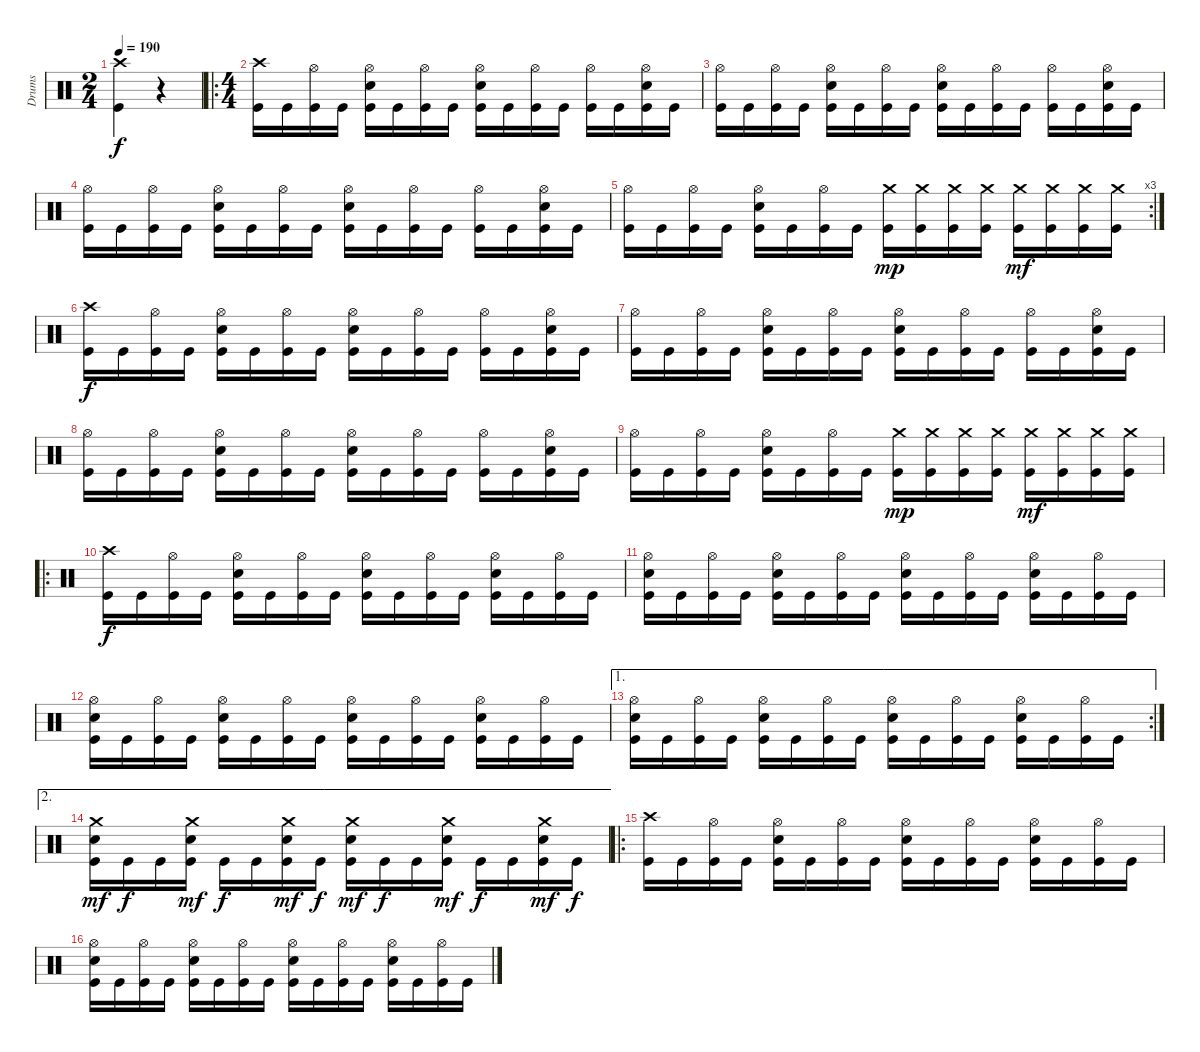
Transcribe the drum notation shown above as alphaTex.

\track ("Drums" "Drums") {instrument percussion}
\staff {score}
\articulation defaults
\ts (2 4)
\tempo 190
\clef neutral
\ks c
("Crash high (hit)" "Kick (hit)").4{dy f} r.4{volume 6} |
\ro
\ts (4 4)
("Crash high (hit)" "Kick (hit)").16{volume 16} "Kick (hit)".16 ("Hi-Hat (open)" "Kick (hit)").16 "Kick (hit)".16 ("Hi-Hat (open)" "Electric Snare (hit)" "Kick (hit)").16 "Kick (hit)".16 ("Hi-Hat (open)" "Kick (hit)").16 "Kick (hit)".16 ("Hi-Hat (open)" "Electric Snare (hit)" "Kick (hit)").16 "Kick (hit)".16 ("Hi-Hat (open)" "Kick (hit)").16 "Kick (hit)".16 ("Hi-Hat (open)" "Kick (hit)").16 "Kick (hit)".16 ("Hi-Hat (open)" "Electric Snare (hit)" "Kick (hit)").16 "Kick (hit)".16 |
("Hi-Hat (open)" "Kick (hit)").16 "Kick (hit)".16 ("Hi-Hat (open)" "Kick (hit)").16 "Kick (hit)".16 ("Hi-Hat (open)" "Electric Snare (hit)" "Kick (hit)").16 "Kick (hit)".16 ("Hi-Hat (open)" "Kick (hit)").16 "Kick (hit)".16 ("Hi-Hat (open)" "Electric Snare (hit)" "Kick (hit)").16 "Kick (hit)".16 ("Hi-Hat (open)" "Kick (hit)").16 "Kick (hit)".16 ("Hi-Hat (open)" "Kick (hit)").16 "Kick (hit)".16 ("Hi-Hat (open)" "Electric Snare (hit)" "Kick (hit)").16 "Kick (hit)".16 |
("Hi-Hat (open)" "Kick (hit)").16 "Kick (hit)".16 ("Hi-Hat (open)" "Kick (hit)").16 "Kick (hit)".16 ("Hi-Hat (open)" "Electric Snare (hit)" "Kick (hit)").16 "Kick (hit)".16 ("Hi-Hat (open)" "Kick (hit)").16 "Kick (hit)".16 ("Hi-Hat (open)" "Electric Snare (hit)" "Kick (hit)").16 "Kick (hit)".16 ("Hi-Hat (open)" "Kick (hit)").16 "Kick (hit)".16 ("Hi-Hat (open)" "Kick (hit)").16 "Kick (hit)".16 ("Hi-Hat (open)" "Electric Snare (hit)" "Kick (hit)").16 "Kick (hit)".16 |
\rc 3
("Hi-Hat (open)" "Kick (hit)").16 "Kick (hit)".16 ("Hi-Hat (open)" "Kick (hit)").16 "Kick (hit)".16 ("Hi-Hat (open)" "Electric Snare (hit)" "Kick (hit)").16 "Kick (hit)".16 ("Hi-Hat (open)" "Kick (hit)").16 "Kick (hit)".16 ("Crash medium (hit)" "Kick (hit)").16{dy mp} ("Crash medium (hit)" "Kick (hit)").16 ("Crash medium (hit)" "Kick (hit)").16 ("Crash medium (hit)" "Kick (hit)").16 ("Crash medium (hit)" "Kick (hit)").16{dy mf} ("Crash medium (hit)" "Kick (hit)").16 ("Crash medium (hit)" "Kick (hit)").16 ("Crash medium (hit)" "Kick (hit)").16 |
("Crash high (hit)" "Kick (hit)").16{dy f} "Kick (hit)".16 ("Hi-Hat (open)" "Kick (hit)").16 "Kick (hit)".16 ("Hi-Hat (open)" "Electric Snare (hit)" "Kick (hit)").16 "Kick (hit)".16 ("Hi-Hat (open)" "Kick (hit)").16 "Kick (hit)".16 ("Hi-Hat (open)" "Electric Snare (hit)" "Kick (hit)").16 "Kick (hit)".16 ("Hi-Hat (open)" "Kick (hit)").16 "Kick (hit)".16 ("Hi-Hat (open)" "Kick (hit)").16 "Kick (hit)".16 ("Hi-Hat (open)" "Electric Snare (hit)" "Kick (hit)").16 "Kick (hit)".16 |
("Hi-Hat (open)" "Kick (hit)").16 "Kick (hit)".16 ("Hi-Hat (open)" "Kick (hit)").16 "Kick (hit)".16 ("Hi-Hat (open)" "Electric Snare (hit)" "Kick (hit)").16 "Kick (hit)".16 ("Hi-Hat (open)" "Kick (hit)").16 "Kick (hit)".16 ("Hi-Hat (open)" "Electric Snare (hit)" "Kick (hit)").16 "Kick (hit)".16 ("Hi-Hat (open)" "Kick (hit)").16 "Kick (hit)".16 ("Hi-Hat (open)" "Kick (hit)").16 "Kick (hit)".16 ("Hi-Hat (open)" "Electric Snare (hit)" "Kick (hit)").16 "Kick (hit)".16 |
("Hi-Hat (open)" "Kick (hit)").16 "Kick (hit)".16 ("Hi-Hat (open)" "Kick (hit)").16 "Kick (hit)".16 ("Hi-Hat (open)" "Electric Snare (hit)" "Kick (hit)").16 "Kick (hit)".16 ("Hi-Hat (open)" "Kick (hit)").16 "Kick (hit)".16 ("Hi-Hat (open)" "Electric Snare (hit)" "Kick (hit)").16 "Kick (hit)".16 ("Hi-Hat (open)" "Kick (hit)").16 "Kick (hit)".16 ("Hi-Hat (open)" "Kick (hit)").16 "Kick (hit)".16 ("Hi-Hat (open)" "Electric Snare (hit)" "Kick (hit)").16 "Kick (hit)".16 |
("Hi-Hat (open)" "Kick (hit)").16 "Kick (hit)".16 ("Hi-Hat (open)" "Kick (hit)").16 "Kick (hit)".16 ("Hi-Hat (open)" "Electric Snare (hit)" "Kick (hit)").16 "Kick (hit)".16 ("Hi-Hat (open)" "Kick (hit)").16 "Kick (hit)".16 ("Crash medium (hit)" "Kick (hit)").16{dy mp} ("Crash medium (hit)" "Kick (hit)").16 ("Crash medium (hit)" "Kick (hit)").16 ("Crash medium (hit)" "Kick (hit)").16 ("Crash medium (hit)" "Kick (hit)").16{dy mf} ("Crash medium (hit)" "Kick (hit)").16 ("Crash medium (hit)" "Kick (hit)").16 ("Crash medium (hit)" "Kick (hit)").16 |
\ro
("Crash high (hit)" "Kick (hit)").16{dy f} "Kick (hit)".16 ("Hi-Hat (open)" "Kick (hit)").16 "Kick (hit)".16 ("Hi-Hat (open)" "Electric Snare (hit)" "Kick (hit)").16 "Kick (hit)".16 ("Hi-Hat (open)" "Kick (hit)").16 "Kick (hit)".16 ("Hi-Hat (open)" "Electric Snare (hit)" "Kick (hit)").16 "Kick (hit)".16 ("Hi-Hat (open)" "Kick (hit)").16 "Kick (hit)".16 ("Hi-Hat (open)" "Electric Snare (hit)" "Kick (hit)").16 "Kick (hit)".16 ("Hi-Hat (open)" "Kick (hit)").16 "Kick (hit)".16 |
("Hi-Hat (open)" "Electric Snare (hit)" "Kick (hit)").16 "Kick (hit)".16 ("Hi-Hat (open)" "Kick (hit)").16 "Kick (hit)".16 ("Hi-Hat (open)" "Electric Snare (hit)" "Kick (hit)").16 "Kick (hit)".16 ("Hi-Hat (open)" "Kick (hit)").16 "Kick (hit)".16 ("Hi-Hat (open)" "Electric Snare (hit)" "Kick (hit)").16 "Kick (hit)".16 ("Hi-Hat (open)" "Kick (hit)").16 "Kick (hit)".16 ("Hi-Hat (open)" "Electric Snare (hit)" "Kick (hit)").16 "Kick (hit)".16 ("Hi-Hat (open)" "Kick (hit)").16 "Kick (hit)".16 |
("Hi-Hat (open)" "Electric Snare (hit)" "Kick (hit)").16 "Kick (hit)".16 ("Hi-Hat (open)" "Kick (hit)").16 "Kick (hit)".16 ("Hi-Hat (open)" "Electric Snare (hit)" "Kick (hit)").16 "Kick (hit)".16 ("Hi-Hat (open)" "Kick (hit)").16 "Kick (hit)".16 ("Hi-Hat (open)" "Electric Snare (hit)" "Kick (hit)").16 "Kick (hit)".16 ("Hi-Hat (open)" "Kick (hit)").16 "Kick (hit)".16 ("Hi-Hat (open)" "Electric Snare (hit)" "Kick (hit)").16 "Kick (hit)".16 ("Hi-Hat (open)" "Kick (hit)").16 "Kick (hit)".16 |
\ae 1
\rc 2
("Hi-Hat (open)" "Electric Snare (hit)" "Kick (hit)").16 "Kick (hit)".16 ("Hi-Hat (open)" "Kick (hit)").16 "Kick (hit)".16 ("Hi-Hat (open)" "Electric Snare (hit)" "Kick (hit)").16 "Kick (hit)".16 ("Hi-Hat (open)" "Kick (hit)").16 "Kick (hit)".16 ("Hi-Hat (open)" "Electric Snare (hit)" "Kick (hit)").16 "Kick (hit)".16 ("Hi-Hat (open)" "Kick (hit)").16 "Kick (hit)".16 ("Hi-Hat (open)" "Electric Snare (hit)" "Kick (hit)").16 "Kick (hit)".16 ("Hi-Hat (open)" "Kick (hit)").16 "Kick (hit)".16 |
\ae 2
("Crash medium (hit)" "Electric Snare (hit)" "Kick (hit)").16{dy mf} "Kick (hit)".16{dy f} "Kick (hit)".16 ("Crash medium (hit)" "Electric Snare (hit)" "Kick (hit)").16{dy mf} "Kick (hit)".16{dy f} "Kick (hit)".16 ("Crash medium (hit)" "Electric Snare (hit)" "Kick (hit)").16{dy mf} "Kick (hit)".16{dy f} ("Crash medium (hit)" "Electric Snare (hit)" "Kick (hit)").16{dy mf} "Kick (hit)".16{dy f} "Kick (hit)".16 ("Crash medium (hit)" "Electric Snare (hit)" "Kick (hit)").16{dy mf} "Kick (hit)".16{dy f} "Kick (hit)".16 ("Crash medium (hit)" "Electric Snare (hit)" "Kick (hit)").16{dy mf} "Kick (hit)".16{dy f} |
\ro
("Crash high (hit)" "Kick (hit)").16 "Kick (hit)".16 ("Hi-Hat (open)" "Kick (hit)").16 "Kick (hit)".16 ("Hi-Hat (open)" "Electric Snare (hit)" "Kick (hit)").16 "Kick (hit)".16 ("Hi-Hat (open)" "Kick (hit)").16 "Kick (hit)".16 ("Hi-Hat (open)" "Electric Snare (hit)" "Kick (hit)").16 "Kick (hit)".16 ("Hi-Hat (open)" "Kick (hit)").16 "Kick (hit)".16 ("Hi-Hat (open)" "Electric Snare (hit)" "Kick (hit)").16 "Kick (hit)".16 ("Hi-Hat (open)" "Kick (hit)").16 "Kick (hit)".16 |
("Hi-Hat (open)" "Electric Snare (hit)" "Kick (hit)").16 "Kick (hit)".16 ("Hi-Hat (open)" "Kick (hit)").16 "Kick (hit)".16 ("Hi-Hat (open)" "Electric Snare (hit)" "Kick (hit)").16 "Kick (hit)".16 ("Hi-Hat (open)" "Kick (hit)").16 "Kick (hit)".16 ("Hi-Hat (open)" "Electric Snare (hit)" "Kick (hit)").16 "Kick (hit)".16 ("Hi-Hat (open)" "Kick (hit)").16 "Kick (hit)".16 ("Hi-Hat (open)" "Electric Snare (hit)" "Kick (hit)").16 "Kick (hit)".16 ("Hi-Hat (open)" "Kick (hit)").16 "Kick (hit)".16
